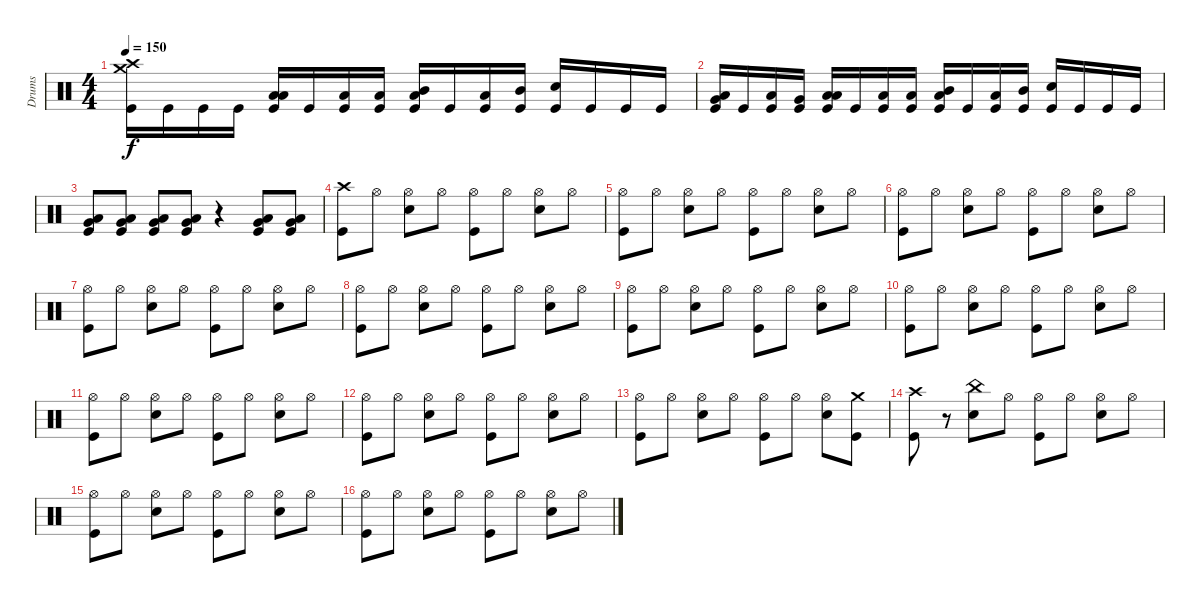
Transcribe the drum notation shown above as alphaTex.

\track ("Drums" "Drums") {instrument percussion}
\staff {score}
\articulation defaults
\ts (4 4)
\tempo 150
\clef neutral
\ks c
("Crash medium (hit)" "Crash high (hit)" "Kick (hit)").16{dy f} "Kick (hit)".16 "Kick (hit)".16 "Kick (hit)".16 ("Low Floor Tom (hit)" "Low Tom (hit)" "Kick (hit)").16 "Kick (hit)".16 ("Low Floor Tom (hit)" "Kick (hit)").16 ("Low Tom (hit)" "Kick (hit)").16 ("Low Tom (hit)" "Mid Tom (hit)" "Kick (hit)").16 "Kick (hit)".16 ("Low Tom (hit)" "Kick (hit)").16 ("Mid Tom (hit)" "Kick (hit)").16 ("Snare (hit) 2" "Kick (hit)").16 "Kick (hit)".16 "Kick (hit)".16 "Kick (hit)".16 |
("Low Floor Tom (hit)" "Very Low Tom (hit)" "Kick (hit)").16 "Kick (hit)".16 ("Low Floor Tom (hit)" "Kick (hit)").16 ("Very Low Tom (hit)" "Kick (hit)").16 ("Low Floor Tom (hit)" "Low Tom (hit)" "Kick (hit)").16 "Kick (hit)".16 ("Low Floor Tom (hit)" "Kick (hit)").16 ("Low Tom (hit)" "Kick (hit)").16 ("Low Tom (hit)" "Mid Tom (hit)" "Kick (hit)").16 "Kick (hit)".16 ("Low Tom (hit)" "Kick (hit)").16 ("Mid Tom (hit)" "Kick (hit)").16 ("Snare (hit) 2" "Kick (hit)").16 "Kick (hit)".16 "Kick (hit)".16 "Kick (hit)".16 |
("Low Floor Tom (hit)" "Very Low Tom (hit)" "Kick (hit)").8 ("Low Floor Tom (hit)" "Very Low Tom (hit)" "Kick (hit)").8 ("Low Floor Tom (hit)" "Very Low Tom (hit)" "Kick (hit)").8 ("Low Floor Tom (hit)" "Very Low Tom (hit)" "Kick (hit)").8 r.4 ("Low Floor Tom (hit)" "Very Low Tom (hit)" "Kick (hit)").8 ("Low Floor Tom (hit)" "Very Low Tom (hit)" "Kick (hit)").8 |
("Crash high (hit)" "Kick (hit)").8 "Hi-Hat (open)".8 ("Hi-Hat (open)" "Snare (hit) 2").8 "Hi-Hat (open)".8 ("Hi-Hat (open)" "Kick (hit)").8 "Hi-Hat (open)".8 ("Hi-Hat (open)" "Snare (hit) 2").8 "Hi-Hat (open)".8 |
("Hi-Hat (open)" "Kick (hit)").8 "Hi-Hat (open)".8 ("Hi-Hat (open)" "Snare (hit) 2").8 "Hi-Hat (open)".8 ("Hi-Hat (open)" "Kick (hit)").8 "Hi-Hat (open)".8 ("Hi-Hat (open)" "Snare (hit) 2").8 "Hi-Hat (open)".8 |
("Hi-Hat (open)" "Kick (hit)").8 "Hi-Hat (open)".8 ("Hi-Hat (open)" "Snare (hit) 2").8 "Hi-Hat (open)".8 ("Hi-Hat (open)" "Kick (hit)").8 "Hi-Hat (open)".8 ("Hi-Hat (open)" "Snare (hit) 2").8 "Hi-Hat (open)".8 |
("Hi-Hat (open)" "Kick (hit)").8 "Hi-Hat (open)".8 ("Hi-Hat (open)" "Snare (hit) 2").8 "Hi-Hat (open)".8 ("Hi-Hat (open)" "Kick (hit)").8 "Hi-Hat (open)".8 ("Hi-Hat (open)" "Snare (hit) 2").8 "Hi-Hat (open)".8 |
("Hi-Hat (open)" "Kick (hit)").8 "Hi-Hat (open)".8 ("Hi-Hat (open)" "Snare (hit) 2").8 "Hi-Hat (open)".8 ("Hi-Hat (open)" "Kick (hit)").8 "Hi-Hat (open)".8 ("Hi-Hat (open)" "Snare (hit) 2").8 "Hi-Hat (open)".8 |
("Hi-Hat (open)" "Kick (hit)").8 "Hi-Hat (open)".8 ("Hi-Hat (open)" "Snare (hit) 2").8 "Hi-Hat (open)".8 ("Hi-Hat (open)" "Kick (hit)").8 "Hi-Hat (open)".8 ("Hi-Hat (open)" "Snare (hit) 2").8 "Hi-Hat (open)".8 |
("Hi-Hat (open)" "Kick (hit)").8 "Hi-Hat (open)".8 ("Hi-Hat (open)" "Snare (hit) 2").8 "Hi-Hat (open)".8 ("Hi-Hat (open)" "Kick (hit)").8 "Hi-Hat (open)".8 ("Hi-Hat (open)" "Snare (hit) 2").8 "Hi-Hat (open)".8 |
("Hi-Hat (open)" "Kick (hit)").8 "Hi-Hat (open)".8 ("Hi-Hat (open)" "Snare (hit) 2").8 "Hi-Hat (open)".8 ("Hi-Hat (open)" "Kick (hit)").8 "Hi-Hat (open)".8 ("Hi-Hat (open)" "Snare (hit) 2").8 "Hi-Hat (open)".8 |
("Hi-Hat (open)" "Kick (hit)").8 "Hi-Hat (open)".8 ("Hi-Hat (open)" "Snare (hit) 2").8 "Hi-Hat (open)".8 ("Hi-Hat (open)" "Kick (hit)").8 "Hi-Hat (open)".8 ("Hi-Hat (open)" "Snare (hit) 2").8 "Hi-Hat (open)".8 |
("Hi-Hat (open)" "Kick (hit)").8 "Hi-Hat (open)".8 ("Hi-Hat (open)" "Snare (hit) 2").8 "Hi-Hat (open)".8 ("Hi-Hat (open)" "Kick (hit)").8 "Hi-Hat (open)".8 ("Hi-Hat (open)" "Snare (hit) 2").8 ("Crash medium (hit)" "Kick (hit)").8 |
("Crash high (hit)" "Kick (hit)").8 r.8 ("China (hit)" "Snare (hit) 2").8 "Hi-Hat (open)".8 ("Hi-Hat (open)" "Kick (hit)").8 "Hi-Hat (open)".8 ("Hi-Hat (open)" "Snare (hit) 2").8 "Hi-Hat (open)".8 |
("Hi-Hat (open)" "Kick (hit)").8 "Hi-Hat (open)".8 ("Hi-Hat (open)" "Snare (hit) 2").8 "Hi-Hat (open)".8 ("Hi-Hat (open)" "Kick (hit)").8 "Hi-Hat (open)".8 ("Hi-Hat (open)" "Snare (hit) 2").8 "Hi-Hat (open)".8 |
("Hi-Hat (open)" "Kick (hit)").8 "Hi-Hat (open)".8 ("Hi-Hat (open)" "Snare (hit) 2").8 "Hi-Hat (open)".8 ("Hi-Hat (open)" "Kick (hit)").8 "Hi-Hat (open)".8 ("Hi-Hat (open)" "Snare (hit) 2").8 "Hi-Hat (open)".8
